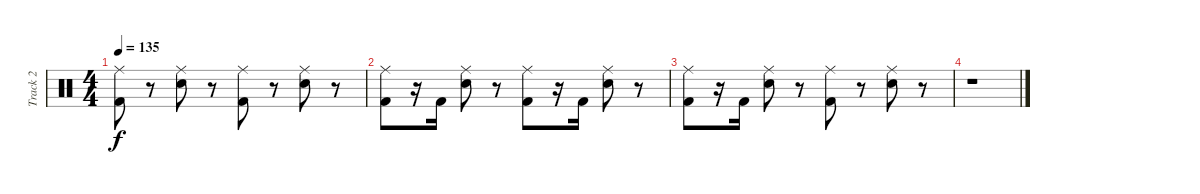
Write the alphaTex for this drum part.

\track ("Track 2" "Track 2") {instrument percussion}
\staff {score}
\articulation defaults
\ts (4 4)
\tempo 135
\clef neutral
\ks c
("Ride (middle)" "Kick (hit) 2").8{dy f} r.8 ("Ride (middle)" "Electric Snare (hit)").8 r.8 ("Ride (middle)" "Kick (hit) 2").8 r.8 ("Ride (middle)" "Electric Snare (hit)").8 r.8 |
("Ride (middle)" "Kick (hit) 2").8 r.16 "Kick (hit) 2".16 ("Ride (middle)" "Electric Snare (hit)").8 r.8 ("Ride (middle)" "Kick (hit) 2").8 r.16 "Kick (hit) 2".16 ("Ride (middle)" "Electric Snare (hit)").8 r.8 |
("Ride (middle)" "Kick (hit) 2").8 r.16 "Kick (hit) 2".16 ("Ride (middle)" "Electric Snare (hit)").8 r.8 ("Ride (middle)" "Kick (hit) 2").8 r.8 ("Ride (middle)" "Electric Snare (hit)").8 r.8 |
r.1
